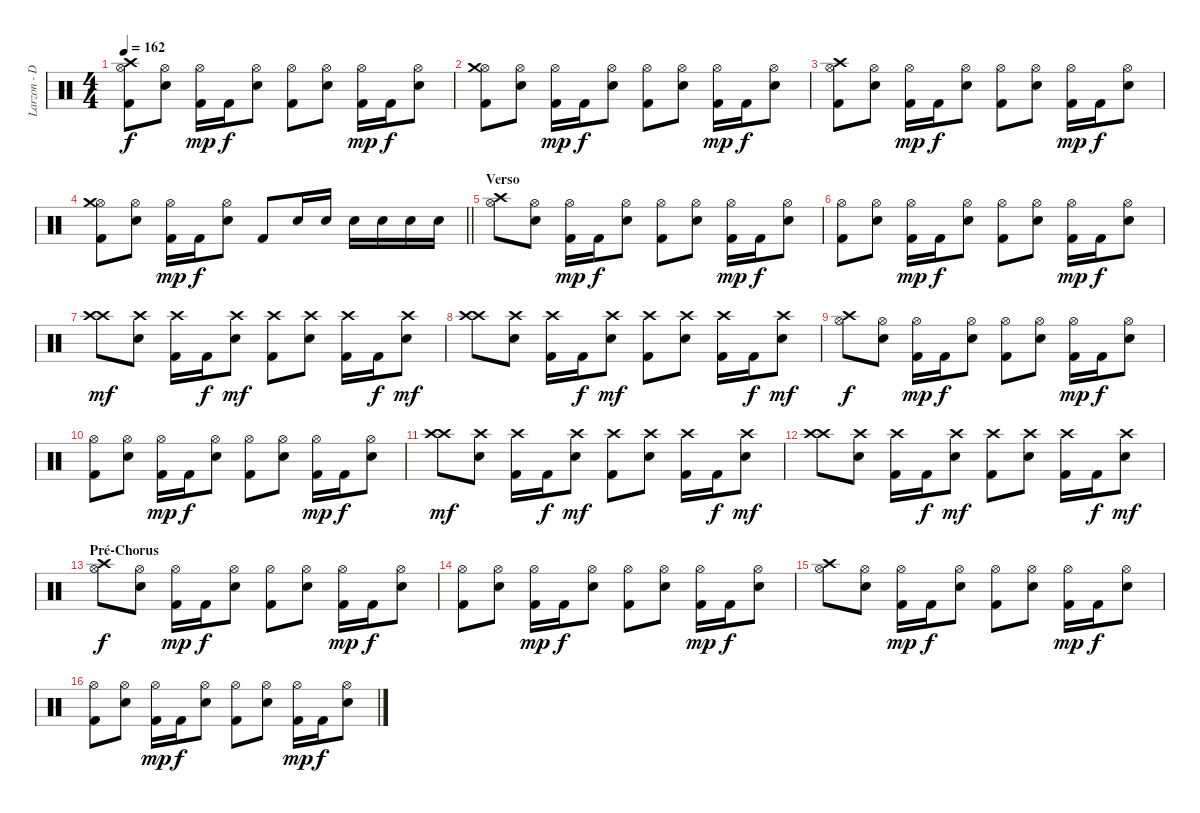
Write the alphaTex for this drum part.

\track ("Larzon - Drums" "Larzon - D") {instrument percussion}
\staff {score}
\articulation defaults
\ts (4 4)
\tempo 162
\clef neutral
\ks c
("Kick (hit) 2" "Hi-Hat (open)" "Crash high (hit)").8{dy f} ("Snare (hit) 2" "Hi-Hat (open)").8 ("Kick (hit) 2" "Hi-Hat (open)").16{dy mp} "Kick (hit) 2".16{dy f} ("Snare (hit) 2" "Hi-Hat (open)").8 ("Kick (hit) 2" "Hi-Hat (open)").8 ("Snare (hit) 2" "Hi-Hat (open)").8 ("Kick (hit) 2" "Hi-Hat (open)").16{dy mp} "Kick (hit) 2".16{dy f} ("Snare (hit) 2" "Hi-Hat (open)").8 |
("Kick (hit) 2" "Hi-Hat (open)" "Crash medium (hit)").8 ("Snare (hit) 2" "Hi-Hat (open)").8 ("Kick (hit) 2" "Hi-Hat (open)").16{dy mp} "Kick (hit) 2".16{dy f} ("Snare (hit) 2" "Hi-Hat (open)").8 ("Kick (hit) 2" "Hi-Hat (open)").8 ("Snare (hit) 2" "Hi-Hat (open)").8 ("Kick (hit) 2" "Hi-Hat (open)").16{dy mp} "Kick (hit) 2".16{dy f} ("Snare (hit) 2" "Hi-Hat (open)").8 |
("Kick (hit) 2" "Hi-Hat (open)" "Crash high (hit)").8 ("Snare (hit) 2" "Hi-Hat (open)").8 ("Kick (hit) 2" "Hi-Hat (open)").16{dy mp} "Kick (hit) 2".16{dy f} ("Snare (hit) 2" "Hi-Hat (open)").8 ("Kick (hit) 2" "Hi-Hat (open)").8 ("Snare (hit) 2" "Hi-Hat (open)").8 ("Kick (hit) 2" "Hi-Hat (open)").16{dy mp} "Kick (hit) 2".16{dy f} ("Snare (hit) 2" "Hi-Hat (open)").8 |
\barLineRight lightlight
("Kick (hit) 2" "Hi-Hat (open)" "Crash medium (hit)").8 ("Snare (hit) 2" "Hi-Hat (open)").8 ("Kick (hit) 2" "Hi-Hat (open)").16{dy mp} "Kick (hit) 2".16{dy f} ("Snare (hit) 2" "Hi-Hat (open)").8 "Kick (hit) 2".8 "Snare (hit) 2".16 "Snare (hit) 2".16 "Snare (hit) 2".16 "Snare (hit) 2".16 "Snare (hit) 2".16 "Snare (hit) 2".16 |
\section ("" "Verso")
("Crash high (hit)" "Hi-Hat (open)").8 ("Snare (hit) 2" "Hi-Hat (open)").8 ("Kick (hit) 2" "Hi-Hat (open)").16{dy mp} "Kick (hit) 2".16{dy f} ("Snare (hit) 2" "Hi-Hat (open)").8 ("Kick (hit) 2" "Hi-Hat (open)").8 ("Snare (hit) 2" "Hi-Hat (open)").8 ("Kick (hit) 2" "Hi-Hat (open)").16{dy mp} "Kick (hit) 2".16{dy f} ("Snare (hit) 2" "Hi-Hat (open)").8 |
("Kick (hit) 2" "Hi-Hat (open)").8 ("Snare (hit) 2" "Hi-Hat (open)").8 ("Kick (hit) 2" "Hi-Hat (open)").16{dy mp} "Kick (hit) 2".16{dy f} ("Snare (hit) 2" "Hi-Hat (open)").8 ("Kick (hit) 2" "Hi-Hat (open)").8 ("Snare (hit) 2" "Hi-Hat (open)").8 ("Kick (hit) 2" "Hi-Hat (open)").16{dy mp} "Kick (hit) 2".16{dy f} ("Snare (hit) 2" "Hi-Hat (open)").8 |
("Crash high (hit)" "Crash high (hit)").8{dy mf} ("Snare (hit) 2" "Crash high (hit)").8 ("Kick (hit) 2" "Crash high (hit)").16 "Kick (hit) 2".16{dy f} ("Snare (hit) 2" "Crash high (hit)").8{dy mf} ("Kick (hit) 2" "Crash high (hit)").8 ("Snare (hit) 2" "Crash high (hit)").8 ("Kick (hit) 2" "Crash high (hit)").16 "Kick (hit) 2".16{dy f} ("Snare (hit) 2" "Crash high (hit)").8{dy mf} |
("Crash high (hit)" "Crash high (hit)").8 ("Snare (hit) 2" "Crash high (hit)").8 ("Kick (hit) 2" "Crash high (hit)").16 "Kick (hit) 2".16{dy f} ("Snare (hit) 2" "Crash high (hit)").8{dy mf} ("Kick (hit) 2" "Crash high (hit)").8 ("Snare (hit) 2" "Crash high (hit)").8 ("Kick (hit) 2" "Crash high (hit)").16 "Kick (hit) 2".16{dy f} ("Snare (hit) 2" "Crash high (hit)").8{dy mf} |
("Crash high (hit)" "Hi-Hat (open)").8{dy f} ("Snare (hit) 2" "Hi-Hat (open)").8 ("Kick (hit) 2" "Hi-Hat (open)").16{dy mp} "Kick (hit) 2".16{dy f} ("Snare (hit) 2" "Hi-Hat (open)").8 ("Kick (hit) 2" "Hi-Hat (open)").8 ("Snare (hit) 2" "Hi-Hat (open)").8 ("Kick (hit) 2" "Hi-Hat (open)").16{dy mp} "Kick (hit) 2".16{dy f} ("Snare (hit) 2" "Hi-Hat (open)").8 |
("Kick (hit) 2" "Hi-Hat (open)").8 ("Snare (hit) 2" "Hi-Hat (open)").8 ("Kick (hit) 2" "Hi-Hat (open)").16{dy mp} "Kick (hit) 2".16{dy f} ("Snare (hit) 2" "Hi-Hat (open)").8 ("Kick (hit) 2" "Hi-Hat (open)").8 ("Snare (hit) 2" "Hi-Hat (open)").8 ("Kick (hit) 2" "Hi-Hat (open)").16{dy mp} "Kick (hit) 2".16{dy f} ("Snare (hit) 2" "Hi-Hat (open)").8 |
("Crash high (hit)" "Crash high (hit)").8{dy mf} ("Snare (hit) 2" "Crash high (hit)").8 ("Kick (hit) 2" "Crash high (hit)").16 "Kick (hit) 2".16{dy f} ("Snare (hit) 2" "Crash high (hit)").8{dy mf} ("Kick (hit) 2" "Crash high (hit)").8 ("Snare (hit) 2" "Crash high (hit)").8 ("Kick (hit) 2" "Crash high (hit)").16 "Kick (hit) 2".16{dy f} ("Snare (hit) 2" "Crash high (hit)").8{dy mf} |
("Crash high (hit)" "Crash high (hit)").8 ("Snare (hit) 2" "Crash high (hit)").8 ("Kick (hit) 2" "Crash high (hit)").16 "Kick (hit) 2".16{dy f} ("Snare (hit) 2" "Crash high (hit)").8{dy mf} ("Kick (hit) 2" "Crash high (hit)").8 ("Snare (hit) 2" "Crash high (hit)").8 ("Kick (hit) 2" "Crash high (hit)").16 "Kick (hit) 2".16{dy f} ("Snare (hit) 2" "Crash high (hit)").8{dy mf} |
\section ("" "Pré-Chorus")
("Crash high (hit)" "Hi-Hat (open)").8{dy f} ("Snare (hit) 2" "Hi-Hat (open)").8 ("Kick (hit) 2" "Hi-Hat (open)").16{dy mp} "Kick (hit) 2".16{dy f} ("Snare (hit) 2" "Hi-Hat (open)").8 ("Kick (hit) 2" "Hi-Hat (open)").8 ("Snare (hit) 2" "Hi-Hat (open)").8 ("Kick (hit) 2" "Hi-Hat (open)").16{dy mp} "Kick (hit) 2".16{dy f} ("Snare (hit) 2" "Hi-Hat (open)").8 |
("Kick (hit) 2" "Hi-Hat (open)").8 ("Snare (hit) 2" "Hi-Hat (open)").8 ("Kick (hit) 2" "Hi-Hat (open)").16{dy mp} "Kick (hit) 2".16{dy f} ("Snare (hit) 2" "Hi-Hat (open)").8 ("Kick (hit) 2" "Hi-Hat (open)").8 ("Snare (hit) 2" "Hi-Hat (open)").8 ("Kick (hit) 2" "Hi-Hat (open)").16{dy mp} "Kick (hit) 2".16{dy f} ("Snare (hit) 2" "Hi-Hat (open)").8 |
("Crash high (hit)" "Hi-Hat (open)").8 ("Snare (hit) 2" "Hi-Hat (open)").8 ("Kick (hit) 2" "Hi-Hat (open)").16{dy mp} "Kick (hit) 2".16{dy f} ("Snare (hit) 2" "Hi-Hat (open)").8 ("Kick (hit) 2" "Hi-Hat (open)").8 ("Snare (hit) 2" "Hi-Hat (open)").8 ("Kick (hit) 2" "Hi-Hat (open)").16{dy mp} "Kick (hit) 2".16{dy f} ("Snare (hit) 2" "Hi-Hat (open)").8 |
("Kick (hit) 2" "Hi-Hat (open)").8 ("Snare (hit) 2" "Hi-Hat (open)").8 ("Kick (hit) 2" "Hi-Hat (open)").16{dy mp} "Kick (hit) 2".16{dy f} ("Snare (hit) 2" "Hi-Hat (open)").8 ("Kick (hit) 2" "Hi-Hat (open)").8 ("Snare (hit) 2" "Hi-Hat (open)").8 ("Kick (hit) 2" "Hi-Hat (open)").16{dy mp} "Kick (hit) 2".16{dy f} ("Snare (hit) 2" "Hi-Hat (open)").8
